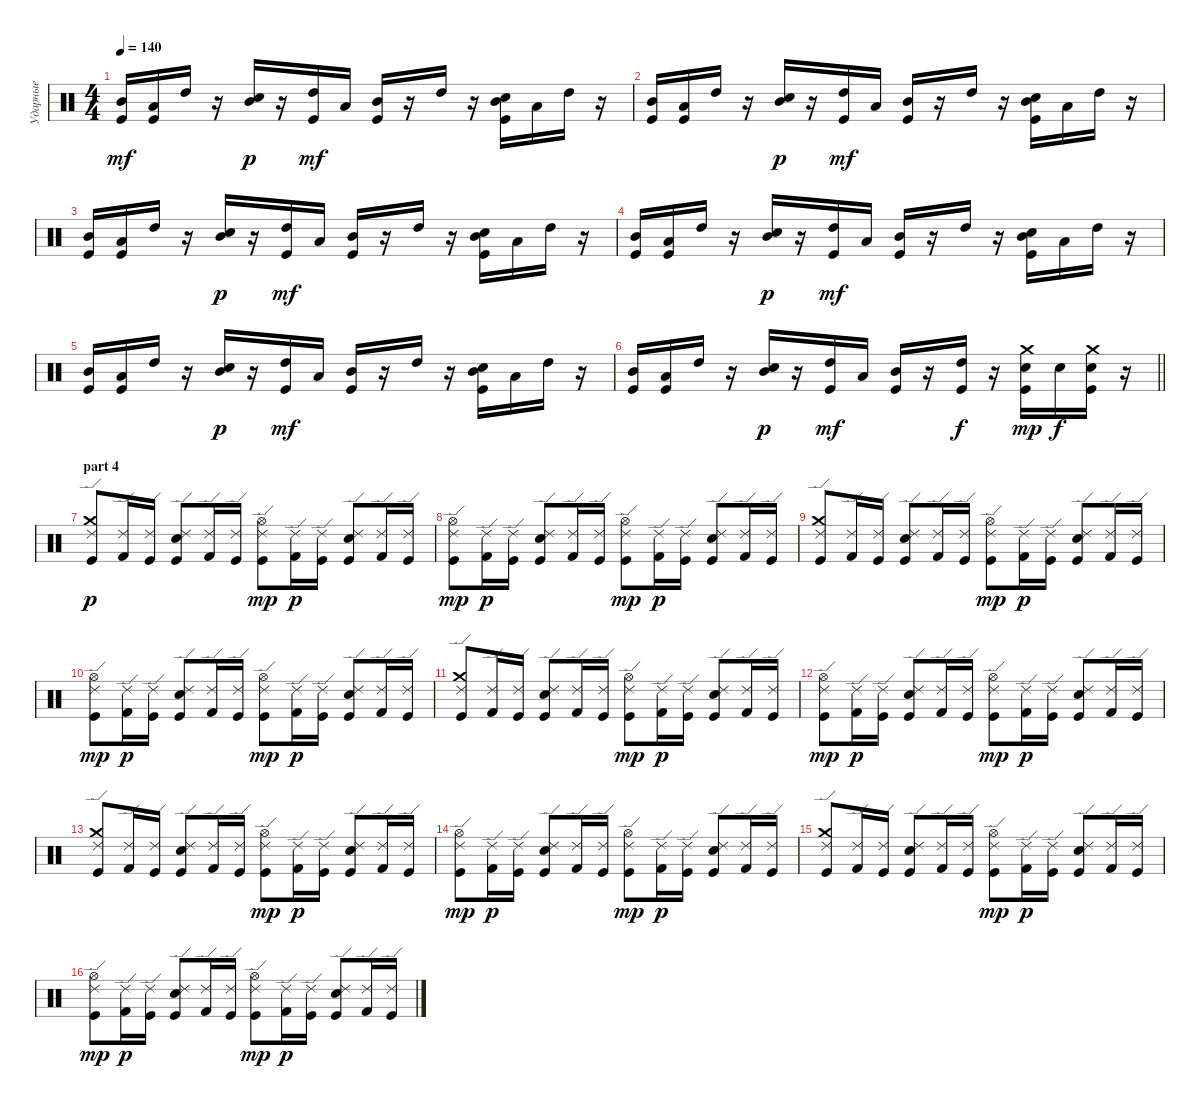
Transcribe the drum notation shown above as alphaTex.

\track ("Ударные" "Ударные") {instrument percussion}
\staff {score}
\articulation defaults
\ts (4 4)
\tempo 140
\clef neutral
\ks c
("Mid Tom (hit)" "Kick (hit)").16{dy mf} ("Low Tom (hit)" "Kick (hit)").16 "High Tom (hit)".16 r.16 ("Mid Tom (hit)" "Electric Snare (hit)").16{dy p} r.16 ("High Tom (hit)" "Kick (hit)").16{dy mf} "Low Tom (hit)".16 ("Mid Tom (hit)" "Kick (hit)").16 r.16 "High Tom (hit)".16 r.16 ("Mid Tom (hit)" "Electric Snare (hit)" "Kick (hit)").16 "Low Tom (hit)".16 "High Tom (hit)".16 r.16 |
("Mid Tom (hit)" "Kick (hit)").16 ("Low Tom (hit)" "Kick (hit)").16 "High Tom (hit)".16 r.16 ("Mid Tom (hit)" "Electric Snare (hit)").16{dy p} r.16 ("High Tom (hit)" "Kick (hit)").16{dy mf} "Low Tom (hit)".16 ("Mid Tom (hit)" "Kick (hit)").16 r.16 "High Tom (hit)".16 r.16 ("Mid Tom (hit)" "Electric Snare (hit)" "Kick (hit)").16 "Low Tom (hit)".16 "High Tom (hit)".16 r.16 |
("Mid Tom (hit)" "Kick (hit)").16 ("Low Tom (hit)" "Kick (hit)").16 "High Tom (hit)".16 r.16 ("Mid Tom (hit)" "Electric Snare (hit)").16{dy p} r.16 ("High Tom (hit)" "Kick (hit)").16{dy mf} "Low Tom (hit)".16 ("Mid Tom (hit)" "Kick (hit)").16 r.16 "High Tom (hit)".16 r.16 ("Mid Tom (hit)" "Electric Snare (hit)" "Kick (hit)").16 "Low Tom (hit)".16 "High Tom (hit)".16 r.16 |
("Mid Tom (hit)" "Kick (hit)").16 ("Low Tom (hit)" "Kick (hit)").16 "High Tom (hit)".16 r.16 ("Mid Tom (hit)" "Electric Snare (hit)").16{dy p} r.16 ("High Tom (hit)" "Kick (hit)").16{dy mf} "Low Tom (hit)".16 ("Mid Tom (hit)" "Kick (hit)").16 r.16 "High Tom (hit)".16 r.16 ("Mid Tom (hit)" "Electric Snare (hit)" "Kick (hit)").16 "Low Tom (hit)".16 "High Tom (hit)".16 r.16 |
("Mid Tom (hit)" "Kick (hit)").16 ("Low Tom (hit)" "Kick (hit)").16 "High Tom (hit)".16 r.16 ("Mid Tom (hit)" "Electric Snare (hit)").16{dy p} r.16 ("High Tom (hit)" "Kick (hit)").16{dy mf} "Low Tom (hit)".16 ("Mid Tom (hit)" "Kick (hit)").16 r.16 "High Tom (hit)".16 r.16 ("Mid Tom (hit)" "Electric Snare (hit)" "Kick (hit)").16 "Low Tom (hit)".16 "High Tom (hit)".16 r.16 |
\barLineRight lightlight
("Mid Tom (hit)" "Kick (hit)").16 ("Low Tom (hit)" "Kick (hit)").16 "High Tom (hit)".16 r.16 ("Mid Tom (hit)" "Electric Snare (hit)").16{dy p} r.16 ("High Tom (hit)" "Kick (hit)").16{dy mf} "Low Tom (hit)".16 ("Mid Tom (hit)" "Kick (hit)").16 r.16 ("High Tom (hit)" "Kick (hit)").16{dy f} r.16 ("Crash medium (hit)" "Electric Snare (hit)" "Kick (hit)").16{dy mp} "Electric Snare (hit)".16{dy f} ("Crash medium (hit)" "Electric Snare (hit)" "Kick (hit)").16 r.16 |
\section ("" "part 4")
("Ride (edge) 2" "Crash medium (hit)" "Kick (hit)").8{dy p} ("Ride (edge) 2" "Kick (hit) 2").16 ("Ride (edge) 2" "Kick (hit)").16 ("Ride (edge) 2" "Electric Snare (hit)" "Kick (hit)").8 ("Ride (edge) 2" "Kick (hit) 2").16 ("Ride (edge) 2" "Kick (hit)").16 ("Ride (edge) 2" "Hi-Hat (open)" "Kick (hit)").8{dy mp} ("Ride (edge) 2" "Kick (hit) 2").16{dy p} ("Ride (edge) 2" "Kick (hit)").16 ("Ride (edge) 2" "Electric Snare (hit)" "Kick (hit)").8 ("Ride (edge) 2" "Kick (hit) 2").16 ("Ride (edge) 2" "Kick (hit)").16 |
("Ride (edge) 2" "Hi-Hat (open)" "Kick (hit)").8{dy mp} ("Ride (edge) 2" "Kick (hit) 2").16{dy p} ("Ride (edge) 2" "Kick (hit)").16 ("Ride (edge) 2" "Electric Snare (hit)" "Kick (hit)").8 ("Ride (edge) 2" "Kick (hit) 2").16 ("Ride (edge) 2" "Kick (hit)").16 ("Ride (edge) 2" "Hi-Hat (open)" "Kick (hit)").8{dy mp} ("Ride (edge) 2" "Kick (hit) 2").16{dy p} ("Ride (edge) 2" "Kick (hit)").16 ("Ride (edge) 2" "Electric Snare (hit)" "Kick (hit)").8 ("Ride (edge) 2" "Kick (hit) 2").16 ("Ride (edge) 2" "Kick (hit)").16 |
("Ride (edge) 2" "Crash medium (hit)" "Kick (hit)").8 ("Ride (edge) 2" "Kick (hit) 2").16 ("Ride (edge) 2" "Kick (hit)").16 ("Ride (edge) 2" "Electric Snare (hit)" "Kick (hit)").8 ("Ride (edge) 2" "Kick (hit) 2").16 ("Ride (edge) 2" "Kick (hit)").16 ("Ride (edge) 2" "Hi-Hat (open)" "Kick (hit)").8{dy mp} ("Ride (edge) 2" "Kick (hit) 2").16{dy p} ("Ride (edge) 2" "Kick (hit)").16 ("Ride (edge) 2" "Electric Snare (hit)" "Kick (hit)").8 ("Ride (edge) 2" "Kick (hit) 2").16 ("Ride (edge) 2" "Kick (hit)").16 |
("Ride (edge) 2" "Hi-Hat (open)" "Kick (hit)").8{dy mp} ("Ride (edge) 2" "Kick (hit) 2").16{dy p} ("Ride (edge) 2" "Kick (hit)").16 ("Ride (edge) 2" "Electric Snare (hit)" "Kick (hit)").8 ("Ride (edge) 2" "Kick (hit) 2").16 ("Ride (edge) 2" "Kick (hit)").16 ("Ride (edge) 2" "Hi-Hat (open)" "Kick (hit)").8{dy mp} ("Ride (edge) 2" "Kick (hit) 2").16{dy p} ("Ride (edge) 2" "Kick (hit)").16 ("Ride (edge) 2" "Electric Snare (hit)" "Kick (hit)").8 ("Ride (edge) 2" "Kick (hit) 2").16 ("Ride (edge) 2" "Kick (hit)").16 |
("Ride (edge) 2" "Crash medium (hit)" "Kick (hit)").8 ("Ride (edge) 2" "Kick (hit) 2").16 ("Ride (edge) 2" "Kick (hit)").16 ("Ride (edge) 2" "Electric Snare (hit)" "Kick (hit)").8 ("Ride (edge) 2" "Kick (hit) 2").16 ("Ride (edge) 2" "Kick (hit)").16 ("Ride (edge) 2" "Hi-Hat (open)" "Kick (hit)").8{dy mp} ("Ride (edge) 2" "Kick (hit) 2").16{dy p} ("Ride (edge) 2" "Kick (hit)").16 ("Ride (edge) 2" "Electric Snare (hit)" "Kick (hit)").8 ("Ride (edge) 2" "Kick (hit) 2").16 ("Ride (edge) 2" "Kick (hit)").16 |
("Ride (edge) 2" "Hi-Hat (open)" "Kick (hit)").8{dy mp} ("Ride (edge) 2" "Kick (hit) 2").16{dy p} ("Ride (edge) 2" "Kick (hit)").16 ("Ride (edge) 2" "Electric Snare (hit)" "Kick (hit)").8 ("Ride (edge) 2" "Kick (hit) 2").16 ("Ride (edge) 2" "Kick (hit)").16 ("Ride (edge) 2" "Hi-Hat (open)" "Kick (hit)").8{dy mp} ("Ride (edge) 2" "Kick (hit) 2").16{dy p} ("Ride (edge) 2" "Kick (hit)").16 ("Ride (edge) 2" "Electric Snare (hit)" "Kick (hit)").8 ("Ride (edge) 2" "Kick (hit) 2").16 ("Ride (edge) 2" "Kick (hit)").16 |
("Ride (edge) 2" "Crash medium (hit)" "Kick (hit)").8 ("Ride (edge) 2" "Kick (hit) 2").16 ("Ride (edge) 2" "Kick (hit)").16 ("Ride (edge) 2" "Electric Snare (hit)" "Kick (hit)").8 ("Ride (edge) 2" "Kick (hit) 2").16 ("Ride (edge) 2" "Kick (hit)").16 ("Ride (edge) 2" "Hi-Hat (open)" "Kick (hit)").8{dy mp} ("Ride (edge) 2" "Kick (hit) 2").16{dy p} ("Ride (edge) 2" "Kick (hit)").16 ("Ride (edge) 2" "Electric Snare (hit)" "Kick (hit)").8 ("Ride (edge) 2" "Kick (hit) 2").16 ("Ride (edge) 2" "Kick (hit)").16 |
("Ride (edge) 2" "Hi-Hat (open)" "Kick (hit)").8{dy mp} ("Ride (edge) 2" "Kick (hit) 2").16{dy p} ("Ride (edge) 2" "Kick (hit)").16 ("Ride (edge) 2" "Electric Snare (hit)" "Kick (hit)").8 ("Ride (edge) 2" "Kick (hit) 2").16 ("Ride (edge) 2" "Kick (hit)").16 ("Ride (edge) 2" "Hi-Hat (open)" "Kick (hit)").8{dy mp} ("Ride (edge) 2" "Kick (hit) 2").16{dy p} ("Ride (edge) 2" "Kick (hit)").16 ("Ride (edge) 2" "Electric Snare (hit)" "Kick (hit)").8 ("Ride (edge) 2" "Kick (hit) 2").16 ("Ride (edge) 2" "Kick (hit)").16 |
("Ride (edge) 2" "Crash medium (hit)" "Kick (hit)").8 ("Ride (edge) 2" "Kick (hit) 2").16 ("Ride (edge) 2" "Kick (hit)").16 ("Ride (edge) 2" "Electric Snare (hit)" "Kick (hit)").8 ("Ride (edge) 2" "Kick (hit) 2").16 ("Ride (edge) 2" "Kick (hit)").16 ("Ride (edge) 2" "Hi-Hat (open)" "Kick (hit)").8{dy mp} ("Ride (edge) 2" "Kick (hit) 2").16{dy p} ("Ride (edge) 2" "Kick (hit)").16 ("Ride (edge) 2" "Electric Snare (hit)" "Kick (hit)").8 ("Ride (edge) 2" "Kick (hit) 2").16 ("Ride (edge) 2" "Kick (hit)").16 |
("Ride (edge) 2" "Hi-Hat (open)" "Kick (hit)").8{dy mp} ("Ride (edge) 2" "Kick (hit) 2").16{dy p} ("Ride (edge) 2" "Kick (hit)").16 ("Ride (edge) 2" "Electric Snare (hit)" "Kick (hit)").8 ("Ride (edge) 2" "Kick (hit) 2").16 ("Ride (edge) 2" "Kick (hit)").16 ("Ride (edge) 2" "Hi-Hat (open)" "Kick (hit)").8{dy mp} ("Ride (edge) 2" "Kick (hit) 2").16{dy p} ("Ride (edge) 2" "Kick (hit)").16 ("Ride (edge) 2" "Electric Snare (hit)" "Kick (hit)").8 ("Ride (edge) 2" "Kick (hit) 2").16 ("Ride (edge) 2" "Kick (hit)").16
